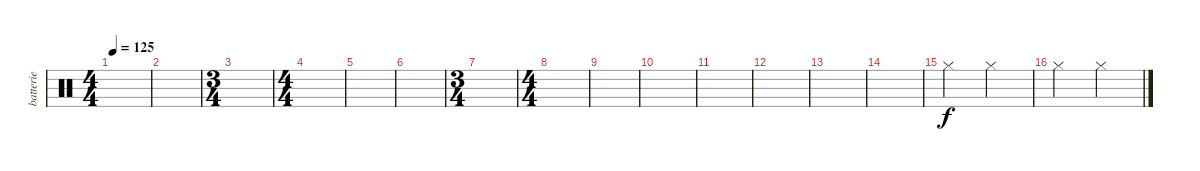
\track ("batterie" "batterie") {instrument percussion}
\staff {score}
\articulation defaults
\ts (4 4)
\tempo 125
\clef neutral
\ks c
|
|
\ts (3 4)
|
\ts (4 4)
|
|
|
\ts (3 4)
|
\ts (4 4)
|
|
|
|
|
|
|
"Hi-Hat (closed)".2 "Hi-Hat (closed)".2 |
"Hi-Hat (closed)".2 "Hi-Hat (closed)".2
